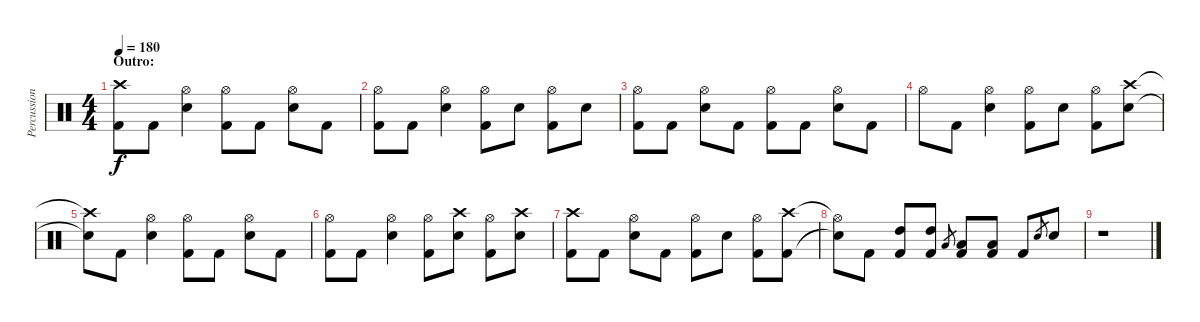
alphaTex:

\track ("Percussion" "Percussion") {instrument percussion}
\staff {score}
\articulation defaults
\ts (4 4)
\section ("" "Outro:")
\tempo 180
\clef neutral
\ks c
("Crash high (hit)" "Kick (hit) 2").8{dy f} "Kick (hit) 2".8 ("Hi-Hat (open)" "Snare (hit) 2").4 ("Hi-Hat (open)" "Kick (hit) 2").8 "Kick (hit) 2".8 ("Hi-Hat (open)" "Snare (hit) 2").8 "Kick (hit) 2".8 |
("Hi-Hat (open)" "Kick (hit) 2").8 "Kick (hit) 2".8 ("Hi-Hat (open)" "Snare (hit) 2").4 ("Hi-Hat (open)" "Kick (hit) 2").8 "Snare (hit) 2".8 ("Hi-Hat (open)" "Kick (hit) 2").8 "Snare (hit) 2".8 |
("Hi-Hat (open)" "Kick (hit) 2").8 "Kick (hit) 2".8 ("Hi-Hat (open)" "Snare (hit) 2").8 "Kick (hit) 2".8 ("Hi-Hat (open)" "Kick (hit) 2").8 "Kick (hit) 2".8 ("Hi-Hat (open)" "Snare (hit) 2").8 "Kick (hit) 2".8 |
"Hi-Hat (open)".8 "Kick (hit) 2".8 ("Hi-Hat (open)" "Snare (hit) 2").4 ("Hi-Hat (open)" "Kick (hit) 2").8 "Snare (hit) 2".8 ("Hi-Hat (open)" "Kick (hit) 2").8 ("Crash high (hit)" "Snare (hit) 2").8 |
("Crash high (hit)"{t} "Snare (hit)"{t}).8 "Kick (hit) 2".8 ("Hi-Hat (open)" "Snare (hit) 2").4 ("Hi-Hat (open)" "Kick (hit) 2").8 "Kick (hit) 2".8 ("Hi-Hat (open)" "Snare (hit) 2").8 "Kick (hit) 2".8 |
("Hi-Hat (open)" "Kick (hit) 2").8 "Kick (hit) 2".8 ("Hi-Hat (open)" "Snare (hit) 2").4 ("Hi-Hat (open)" "Kick (hit) 2").8 ("Crash high (hit)" "Snare (hit) 2").8 ("Hi-Hat (open)" "Kick (hit) 2").8 ("Crash high (hit)" "Snare (hit) 2").8 |
("Crash high (hit)" "Kick (hit) 2").8 "Kick (hit) 2".8 ("Hi-Hat (open)" "Snare (hit) 2").8 "Kick (hit) 2".8 ("Hi-Hat (open)" "Kick (hit) 2").8 "Snare (hit) 2".8 ("Hi-Hat (open)" "Kick (hit) 2").8 ("Crash high (hit)" "Kick (hit) 2").8 |
("Hi-Hat (open)"{t} "Snare (hit)"{t}).8 "Kick (hit) 2".8 ("High Tom (hit)" "Kick (hit) 2").8 ("High Tom (hit)" "Kick (hit) 2").8 "Low Tom (hit)".8{gr} ("Low Tom (hit)" "Kick (hit) 2").8 ("Low Tom (hit)" "Kick (hit) 2").8 "Kick (hit) 2".8 "Snare (hit) 2".8{gr} "Snare (hit) 2".8 |
r.1
